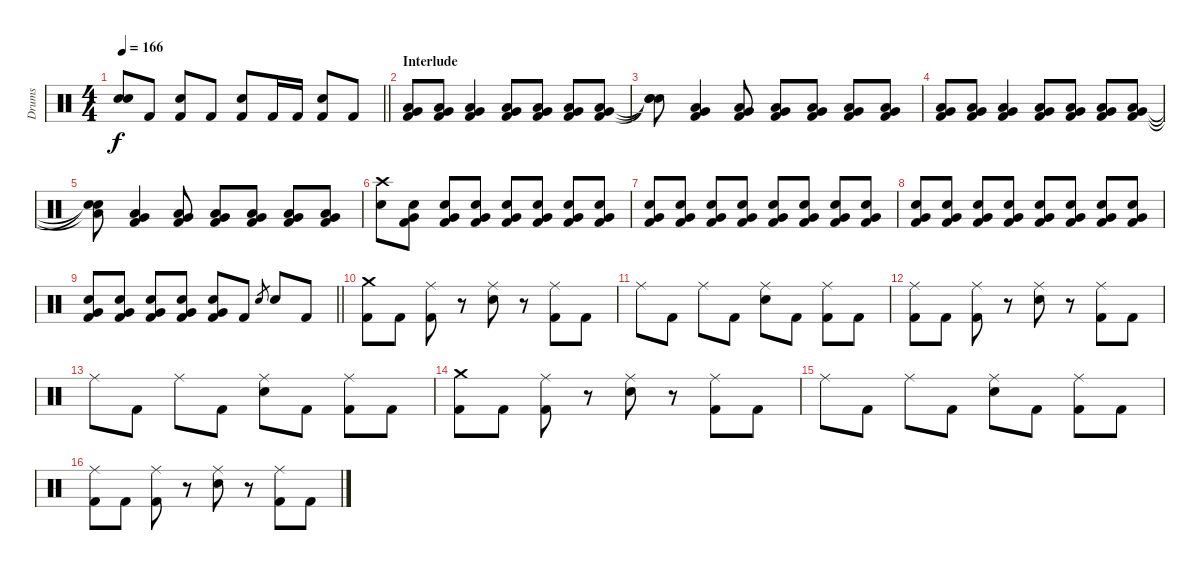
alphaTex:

\track ("Drums" "Drums") {instrument percussion}
\staff {score}
\articulation defaults
\ts (4 4)
\tempo 166
\clef neutral
\barLineRight lightlight
\ks c
("Snare (hit)"{t} "Snare (hit)"{t}).8{dy f} "Kick (hit) 2".8 ("Electric Snare (hit)" "Kick (hit) 2").8 "Kick (hit) 2".8 ("Electric Snare (hit)" "Kick (hit) 2").8 "Kick (hit) 2".16 "Kick (hit) 2".16 ("Electric Snare (hit)" "Kick (hit) 2").8 "Kick (hit) 2".8 |
\section ("" "Interlude")
("Very Low Tom (hit)" "Low Floor Tom (hit)" "Kick (hit) 2").8 ("Very Low Tom (hit)" "Low Floor Tom (hit)" "Kick (hit) 2").8 ("Very Low Tom (hit)" "Low Floor Tom (hit)" "Kick (hit) 2").4 ("Very Low Tom (hit)" "Low Floor Tom (hit)" "Kick (hit) 2").8 ("Very Low Tom (hit)" "Low Floor Tom (hit)" "Kick (hit) 2").8 ("Very Low Tom (hit)" "Low Floor Tom (hit)" "Kick (hit) 2").8 ("Very Low Tom (hit)" "Low Floor Tom (hit)" "Kick (hit) 2").8 |
("Snare (hit)"{t} "Snare (hit)"{t} "Snare (hit)"{t}).8 ("Very Low Tom (hit)" "Low Floor Tom (hit)" "Kick (hit) 2").4 ("Very Low Tom (hit)" "Low Floor Tom (hit)" "Kick (hit) 2").8 ("Very Low Tom (hit)" "Low Floor Tom (hit)" "Kick (hit) 2").8 ("Very Low Tom (hit)" "Low Floor Tom (hit)" "Kick (hit) 2").8 ("Very Low Tom (hit)" "Low Floor Tom (hit)" "Kick (hit) 2").8 ("Very Low Tom (hit)" "Low Floor Tom (hit)" "Kick (hit) 2").8 |
("Very Low Tom (hit)" "Low Floor Tom (hit)" "Kick (hit) 2").8 ("Very Low Tom (hit)" "Low Floor Tom (hit)" "Kick (hit) 2").8 ("Very Low Tom (hit)" "Low Floor Tom (hit)" "Kick (hit) 2").4 ("Very Low Tom (hit)" "Low Floor Tom (hit)" "Kick (hit) 2").8 ("Very Low Tom (hit)" "Low Floor Tom (hit)" "Kick (hit) 2").8 ("Very Low Tom (hit)" "Low Floor Tom (hit)" "Kick (hit) 2").8 ("Very Low Tom (hit)" "Low Floor Tom (hit)" "Kick (hit) 2").8 |
("Low Tom (hit)"{t} "Snare (hit)"{t} "Snare (hit)"{t}).8 ("Very Low Tom (hit)" "Low Floor Tom (hit)" "Kick (hit) 2").4 ("Very Low Tom (hit)" "Low Floor Tom (hit)" "Kick (hit) 2").8 ("Very Low Tom (hit)" "Low Floor Tom (hit)" "Kick (hit) 2").8 ("Very Low Tom (hit)" "Low Floor Tom (hit)" "Kick (hit) 2").8 ("Very Low Tom (hit)" "Low Floor Tom (hit)" "Kick (hit) 2").8 ("Very Low Tom (hit)" "Low Floor Tom (hit)" "Kick (hit) 2").8 |
("Crash high (hit)" "Electric Snare (hit)").8 ("Very Low Tom (hit)" "Electric Snare (hit)" "Kick (hit) 2").8{volume 10} ("Very Low Tom (hit)" "Electric Snare (hit)" "Kick (hit) 2").8{volume 16} ("Very Low Tom (hit)" "Electric Snare (hit)" "Kick (hit) 2").8 ("Very Low Tom (hit)" "Electric Snare (hit)" "Kick (hit) 2").8 ("Very Low Tom (hit)" "Electric Snare (hit)" "Kick (hit) 2").8 ("Very Low Tom (hit)" "Electric Snare (hit)" "Kick (hit) 2").8 ("Very Low Tom (hit)" "Electric Snare (hit)" "Kick (hit) 2").8 |
("Very Low Tom (hit)" "Electric Snare (hit)" "Kick (hit) 2").8 ("Very Low Tom (hit)" "Electric Snare (hit)" "Kick (hit) 2").8 ("Very Low Tom (hit)" "Electric Snare (hit)" "Kick (hit) 2").8 ("Very Low Tom (hit)" "Electric Snare (hit)" "Kick (hit) 2").8 ("Very Low Tom (hit)" "Electric Snare (hit)" "Kick (hit) 2").8 ("Very Low Tom (hit)" "Electric Snare (hit)" "Kick (hit) 2").8 ("Very Low Tom (hit)" "Electric Snare (hit)" "Kick (hit) 2").8 ("Very Low Tom (hit)" "Electric Snare (hit)" "Kick (hit) 2").8 |
("Very Low Tom (hit)" "Electric Snare (hit)" "Kick (hit) 2").8 ("Very Low Tom (hit)" "Electric Snare (hit)" "Kick (hit) 2").8 ("Very Low Tom (hit)" "Electric Snare (hit)" "Kick (hit) 2").8 ("Very Low Tom (hit)" "Electric Snare (hit)" "Kick (hit) 2").8 ("Very Low Tom (hit)" "Electric Snare (hit)" "Kick (hit) 2").8 ("Very Low Tom (hit)" "Electric Snare (hit)" "Kick (hit) 2").8 ("Very Low Tom (hit)" "Electric Snare (hit)" "Kick (hit) 2").8 ("Very Low Tom (hit)" "Electric Snare (hit)" "Kick (hit) 2").8 |
\barLineRight lightlight
("Very Low Tom (hit)" "Electric Snare (hit)" "Kick (hit) 2").8 ("Very Low Tom (hit)" "Electric Snare (hit)" "Kick (hit) 2").8 ("Very Low Tom (hit)" "Electric Snare (hit)" "Kick (hit) 2").8 ("Very Low Tom (hit)" "Electric Snare (hit)" "Kick (hit) 2").8 ("Very Low Tom (hit)" "Electric Snare (hit)" "Kick (hit) 2").8 "Kick (hit) 2".8 "Electric Snare (hit)".8{gr} "Electric Snare (hit)".8 "Kick (hit) 2".8 |
("Crash medium (hit)" "Kick (hit) 2").8{volume 16} "Kick (hit) 2".8 ("Ride (middle)" "Kick (hit) 2").8 r.8 ("Ride (middle)" "Electric Snare (hit)").8 r.8 ("Ride (middle)" "Kick (hit) 2").8 "Kick (hit) 2".8 |
"Ride (middle)".8 "Kick (hit) 2".8 "Ride (middle)".8 "Kick (hit) 2".8 ("Ride (middle)" "Electric Snare (hit)").8 "Kick (hit) 2".8 ("Ride (middle)" "Kick (hit) 2").8 "Kick (hit) 2".8 |
("Ride (middle)" "Kick (hit) 2").8 "Kick (hit) 2".8 ("Ride (middle)" "Kick (hit) 2").8 r.8 ("Ride (middle)" "Electric Snare (hit)").8 r.8 ("Ride (middle)" "Kick (hit) 2").8 "Kick (hit) 2".8 |
"Ride (middle)".8 "Kick (hit) 2".8 "Ride (middle)".8 "Kick (hit) 2".8 ("Ride (middle)" "Electric Snare (hit)").8 "Kick (hit) 2".8 ("Ride (middle)" "Kick (hit) 2").8 "Kick (hit) 2".8 |
("Crash medium (hit)" "Kick (hit) 2").8 "Kick (hit) 2".8 ("Ride (middle)" "Kick (hit) 2").8 r.8 ("Ride (middle)" "Electric Snare (hit)").8 r.8 ("Ride (middle)" "Kick (hit) 2").8 "Kick (hit) 2".8 |
"Ride (middle)".8 "Kick (hit) 2".8 "Ride (middle)".8 "Kick (hit) 2".8 ("Ride (middle)" "Electric Snare (hit)").8 "Kick (hit) 2".8 ("Ride (middle)" "Kick (hit) 2").8 "Kick (hit) 2".8 |
("Ride (middle)" "Kick (hit) 2").8 "Kick (hit) 2".8 ("Ride (middle)" "Kick (hit) 2").8 r.8 ("Ride (middle)" "Electric Snare (hit)").8 r.8 ("Ride (middle)" "Kick (hit) 2").8 "Kick (hit) 2".8
